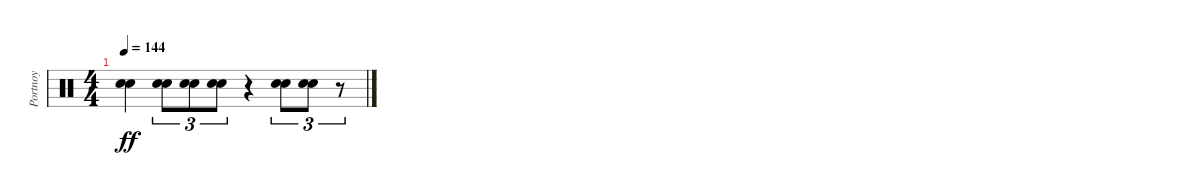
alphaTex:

\track ("Portnoy" "Portnoy") {instrument percussion}
\staff {score}
\articulation defaults
\ts (4 4)
\tempo 144
\clef neutral
\ks c
("Snare (hit) 2" "Electric Snare (hit)").4{dy ff} ("Snare (hit) 2" "Electric Snare (hit)").8{tu (3 2)} ("Snare (hit) 2" "Electric Snare (hit)").8{tu (3 2)} ("Snare (hit) 2" "Electric Snare (hit)").8{tu (3 2)} r.4 ("Snare (hit) 2" "Electric Snare (hit)").8{tu (3 2)} ("Snare (hit) 2" "Electric Snare (hit)").8{tu (3 2)} r.8{tu (3 2)}
